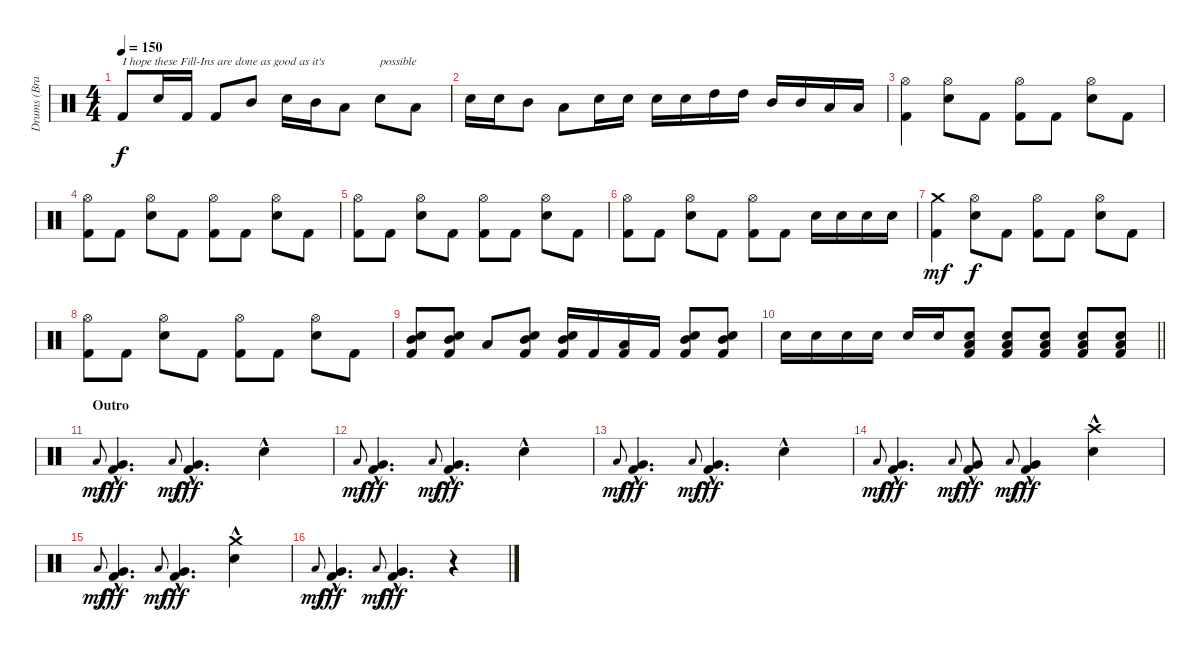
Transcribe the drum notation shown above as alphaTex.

\track ("Drums (Brandon Saller)" "Drums (Bra") {instrument percussion}
\staff {score}
\articulation defaults
\ts (4 4)
\tempo 150
\clef neutral
\ks c "Kick (hit) 2".8{txt "I hope these Fill-Ins are done as good as it's" dy f} "Electric Snare (hit)".16 "Kick (hit) 2".16 "Kick (hit) 2".8 "Mid Tom (hit)".8 "Electric Snare (hit)".16 "Mid Tom (hit)".16 "Low Tom (hit)".8 "Electric Snare (hit)".8{txt "possible"} "Low Tom (hit)".8
|
"Electric Snare (hit)".16 "Electric Snare (hit)".16 "Mid Tom (hit)".8 "Low Tom (hit)".8 "Electric Snare (hit)".16 "Electric Snare (hit)".16 "Electric Snare (hit)".16 "Electric Snare (hit)".16 "High Tom (hit)".16 "High Tom (hit)".16 "Mid Tom (hit)".16 "Mid Tom (hit)".16 "Low Tom (hit)".16 "Low Tom (hit)".16 |
("Hi-Hat (open)" "Kick (hit) 2").4 ("Hi-Hat (open)" "Electric Snare (hit)").8 "Kick (hit) 2".8 ("Hi-Hat (open)" "Kick (hit) 2").8 "Kick (hit) 2".8 ("Hi-Hat (open)" "Electric Snare (hit)").8 "Kick (hit) 2".8 |
("Hi-Hat (open)" "Kick (hit) 2").8 "Kick (hit) 2".8 ("Hi-Hat (open)" "Electric Snare (hit)").8 "Kick (hit) 2".8 ("Hi-Hat (open)" "Kick (hit) 2").8 "Kick (hit) 2".8 ("Hi-Hat (open)" "Electric Snare (hit)").8 "Kick (hit) 2".8 |
("Hi-Hat (open)" "Kick (hit) 2").8 "Kick (hit) 2".8 ("Hi-Hat (open)" "Electric Snare (hit)").8 "Kick (hit) 2".8 ("Hi-Hat (open)" "Kick (hit) 2").8 "Kick (hit) 2".8 ("Hi-Hat (open)" "Electric Snare (hit)").8 "Kick (hit) 2".8 |
("Hi-Hat (open)" "Kick (hit) 2").8 "Kick (hit) 2".8 ("Hi-Hat (open)" "Electric Snare (hit)").8 "Kick (hit) 2".8 ("Hi-Hat (open)" "Kick (hit) 2").8 "Kick (hit) 2".8 "Electric Snare (hit)".16 "Electric Snare (hit)".16 "Electric Snare (hit)".16 "Electric Snare (hit)".16 |
("Crash medium (hit)" "Kick (hit) 2").4{dy mf} ("Hi-Hat (open)" "Electric Snare (hit)").8{dy f} "Kick (hit) 2".8 ("Hi-Hat (open)" "Kick (hit) 2").8 "Kick (hit) 2".8 ("Hi-Hat (open)" "Electric Snare (hit)").8 "Kick (hit) 2".8 |
("Hi-Hat (open)" "Kick (hit) 2").8 "Kick (hit) 2".8 ("Hi-Hat (open)" "Electric Snare (hit)").8 "Kick (hit) 2".8 ("Hi-Hat (open)" "Kick (hit) 2").8 "Kick (hit) 2".8 ("Hi-Hat (open)" "Electric Snare (hit)").8 "Kick (hit) 2".8 |
("Electric Snare (hit)" "Mid Tom (hit)" "Kick (hit) 2").8 ("Electric Snare (hit)" "Mid Tom (hit)" "Kick (hit) 2").8 "Low Tom (hit)".8 ("Electric Snare (hit)" "Mid Tom (hit)" "Kick (hit) 2").8 ("Electric Snare (hit)" "Mid Tom (hit)" "Kick (hit) 2").16 "Kick (hit) 2".16 ("Low Tom (hit)" "Kick (hit) 2").16 "Kick (hit) 2".16 ("Electric Snare (hit)" "Mid Tom (hit)" "Kick (hit) 2").8 ("Electric Snare (hit)" "Mid Tom (hit)" "Kick (hit) 2").8 |
\barLineRight lightlight "Electric Snare (hit)".16 "Electric Snare (hit)".16 "Electric Snare (hit)".16 "Electric Snare (hit)".16 "Electric Snare (hit)".16 "Electric Snare (hit)".16
("Electric Snare (hit)" "Low Tom (hit)" "Kick (hit) 2").8 ("Electric Snare (hit)" "Low Tom (hit)" "Kick (hit) 2").8 ("Electric Snare (hit)" "Low Tom (hit)" "Kick (hit) 2").8 ("Electric Snare (hit)" "Low Tom (hit)" "Kick (hit) 2").8 ("Electric Snare (hit)" "Low Tom (hit)" "Kick (hit) 2").8 |
\section ("" "Outro")
"Low Tom (hit)".8{gr onbeat dy mf} ("Very Low Tom (hit)" "Kick (hit) 2"{hac}).4{d dy fff} "Low Tom (hit)".8{gr onbeat dy mf} ("Very Low Tom (hit)" "Kick (hit) 2"{hac}).4{d dy fff} "Electric Snare (hit)"{hac}.4 |
"Low Tom (hit)".8{gr onbeat dy mf} ("Very Low Tom (hit)" "Kick (hit) 2"{hac}).4{d dy fff} "Low Tom (hit)".8{gr onbeat dy mf} ("Very Low Tom (hit)" "Kick (hit) 2"{hac}).4{d dy fff} "Electric Snare (hit)"{hac}.4 |
"Low Tom (hit)".8{gr onbeat dy mf} ("Very Low Tom (hit)" "Kick (hit) 2"{hac}).4{d dy fff} "Low Tom (hit)".8{gr onbeat dy mf} ("Very Low Tom (hit)" "Kick (hit) 2"{hac}).4{d dy fff} "Electric Snare (hit)"{hac}.4 |
"Low Tom (hit)".8{gr onbeat dy mf} ("Very Low Tom (hit)" "Kick (hit) 2"{hac}).4{d dy fff} "Low Tom (hit)".8{gr onbeat dy mf} ("Very Low Tom (hit)" "Kick (hit) 2"{hac}).8{dy fff} "Low Tom (hit)".8{gr onbeat dy mf} ("Very Low Tom (hit)" "Kick (hit) 2"{hac}).4{dy fff} ("Crash high (hit)" "Electric Snare (hit)"{hac}).4 |
"Low Tom (hit)".8{gr onbeat dy mf} ("Very Low Tom (hit)" "Kick (hit) 2"{hac}).4{d dy fff} "Low Tom (hit)".8{gr onbeat dy mf} ("Very Low Tom (hit)" "Kick (hit) 2"{hac}).4{d dy fff} ("Crash medium (hit)" "Electric Snare (hit)"{hac}).4 |
"Low Tom (hit)".8{gr onbeat dy mf} ("Very Low Tom (hit)" "Kick (hit) 2"{hac}).4{d dy fff} "Low Tom (hit)".8{gr onbeat dy mf} ("Very Low Tom (hit)" "Kick (hit) 2"{hac}).4{d dy fff} r.4
